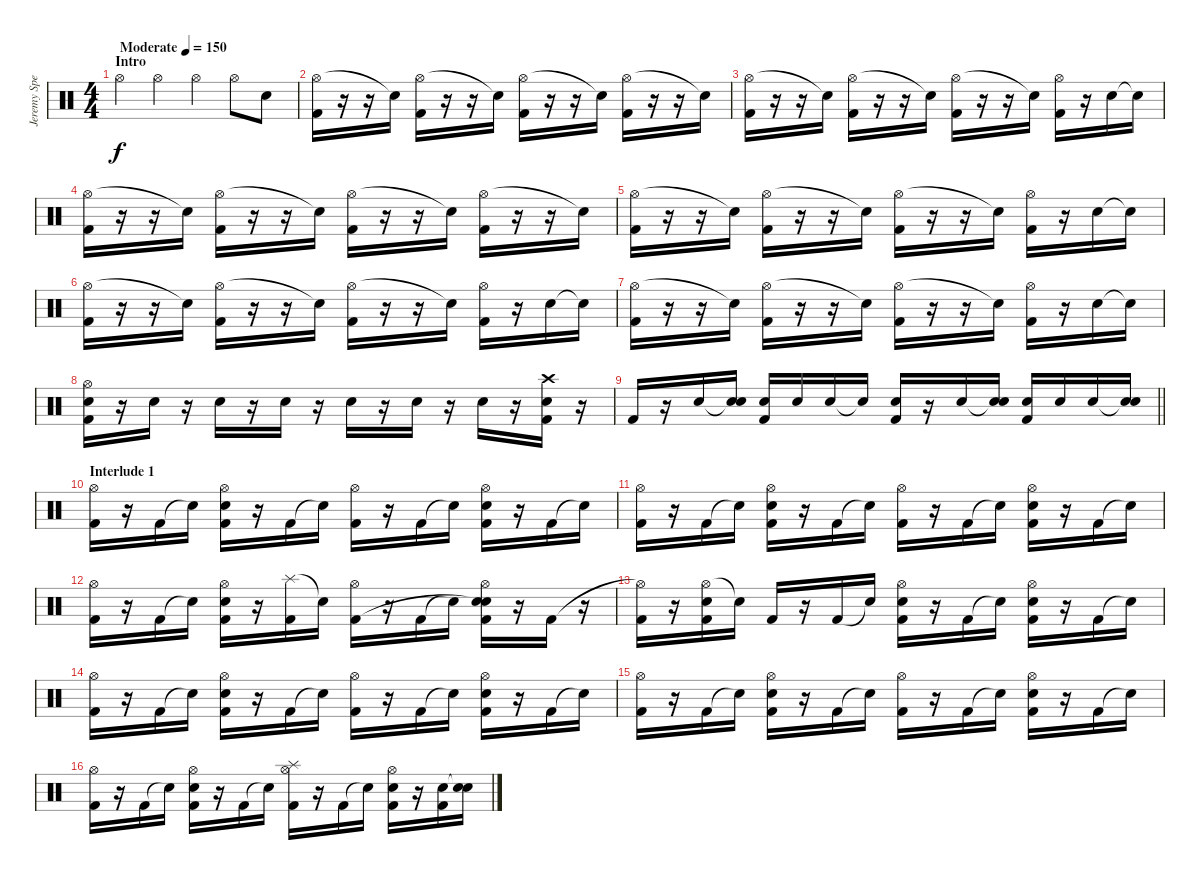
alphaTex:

\track ("Jeremy Spencer" "Jeremy Spe") {instrument percussion}
\staff {score}
\articulation defaults
\ts (4 4)
\section ("" "Intro")
\tempo (150 "Moderate")
\clef neutral
\ks c "Hi-Hat (open)".4{dy f} "Hi-Hat (open)".4 "Hi-Hat (open)".4 "Hi-Hat (open)".8 "Snare (hit) 2".8
|
("Hi-Hat (open)" "Kick (hit) 2").16 r.16 r.16 "Snare (hit)"{t}.16 ("Hi-Hat (open)" "Kick (hit) 2").16 r.16 r.16 "Snare (hit)"{t}.16 ("Hi-Hat (open)" "Kick (hit) 2").16 r.16 r.16 "Snare (hit)"{t}.16 ("Hi-Hat (open)" "Kick (hit) 2").16 r.16 r.16 "Snare (hit)"{t}.16 |
("Hi-Hat (open)" "Kick (hit) 2").16 r.16 r.16 "Snare (hit)"{t}.16 ("Hi-Hat (open)" "Kick (hit) 2").16 r.16 r.16 "Snare (hit)"{t}.16 ("Hi-Hat (open)" "Kick (hit) 2").16 r.16 r.16 "Snare (hit)"{t}.16 ("Hi-Hat (open)" "Kick (hit) 2").16 r.16 "Snare (hit) 2".16 "Snare (hit)"{t}.16 |
("Hi-Hat (open)" "Kick (hit) 2").16 r.16 r.16 "Snare (hit)"{t}.16 ("Hi-Hat (open)" "Kick (hit) 2").16 r.16 r.16 "Snare (hit)"{t}.16 ("Hi-Hat (open)" "Kick (hit) 2").16 r.16 r.16 "Snare (hit)"{t}.16 ("Hi-Hat (open)" "Kick (hit) 2").16 r.16 r.16 "Snare (hit)"{t}.16 |
("Hi-Hat (open)" "Kick (hit) 2").16 r.16 r.16 "Snare (hit)"{t}.16 ("Hi-Hat (open)" "Kick (hit) 2").16 r.16 r.16 "Snare (hit)"{t}.16 ("Hi-Hat (open)" "Kick (hit) 2").16 r.16 r.16 "Snare (hit)"{t}.16 ("Hi-Hat (open)" "Kick (hit) 2").16 r.16 "Snare (hit) 2".16 "Snare (hit)"{t}.16 |
("Hi-Hat (open)" "Kick (hit) 2").16 r.16 r.16 "Snare (hit)"{t}.16 ("Hi-Hat (open)" "Kick (hit) 2").16 r.16 r.16 "Snare (hit)"{t}.16 ("Hi-Hat (open)" "Kick (hit) 2").16 r.16 r.16 "Snare (hit)"{t}.16 ("Hi-Hat (open)" "Kick (hit) 2").16 r.16 "Snare (hit) 2".16 "Snare (hit)"{t}.16 |
("Hi-Hat (open)" "Kick (hit) 2").16 r.16 r.16 "Snare (hit)"{t}.16 ("Hi-Hat (open)" "Kick (hit) 2").16 r.16 r.16 "Snare (hit)"{t}.16 ("Hi-Hat (open)" "Kick (hit) 2").16 r.16 r.16 "Snare (hit)"{t}.16 ("Hi-Hat (open)" "Kick (hit) 2").16 r.16 "Snare (hit) 2".16 "Snare (hit)"{t}.16 |
("Hi-Hat (open)" "Snare (hit) 2" "Kick (hit) 2").16 r.16{volume 4} "Snare (hit) 2".16{volume 16} r.16 "Snare (hit) 2".16 r.16 "Snare (hit) 2".16 r.16 "Snare (hit) 2".16 r.16 "Snare (hit) 2".16 r.16 "Snare (hit) 2".16 r.16 ("Crash high (hit)" "Snare (hit) 2" "Kick (hit) 2").16 r.16 |
\barLineRight lightlight "Kick (hit) 2".16
r.16 "Snare (hit) 2".16 ("Snare (hit)"{t} "Snare (hit) 2").16 ("Snare (hit) 2" "Kick (hit) 2").16 "Snare (hit) 2".16 "Snare (hit) 2".16 "Snare (hit)"{t}.16 ("Snare (hit) 2" "Kick (hit) 2").16 r.16 "Snare (hit) 2".16 ("Snare (hit)"{t} "Snare (hit) 2").16 ("Snare (hit) 2" "Kick (hit) 2").16 "Snare (hit) 2".16 "Snare (hit) 2".16 ("Snare (hit)"{t} "Snare (hit) 2").16 |
\section ("" "Interlude 1")
("Hi-Hat (open)" "Kick (hit) 2").16 r.16 "Kick (hit) 2".16 "Snare (hit)"{t}.16 ("Hi-Hat (open)" "Snare (hit) 2" "Kick (hit) 2").16 r.16 "Kick (hit) 2".16 "Snare (hit)"{t}.16 ("Hi-Hat (open)" "Kick (hit) 2").16 r.16 "Kick (hit) 2".16 "Snare (hit)"{t}.16 ("Hi-Hat (open)" "Snare (hit) 2" "Kick (hit) 2").16 r.16 "Kick (hit) 2".16 "Snare (hit)"{t}.16 |
("Hi-Hat (open)" "Kick (hit) 2").16 r.16 "Kick (hit) 2".16 "Snare (hit)"{t}.16 ("Hi-Hat (open)" "Snare (hit) 2" "Kick (hit) 2").16 r.16 "Kick (hit) 2".16 "Snare (hit)"{t}.16 ("Hi-Hat (open)" "Kick (hit) 2").16 r.16 "Kick (hit) 2".16 "Snare (hit)"{t}.16 ("Hi-Hat (open)" "Snare (hit) 2" "Kick (hit) 2").16 r.16 "Kick (hit) 2".16 "Snare (hit)"{t}.16 |
("Hi-Hat (open)" "Kick (hit) 2").16 r.16 "Kick (hit) 2".16 "Snare (hit)"{t}.16 ("Hi-Hat (open)" "Snare (hit) 2" "Kick (hit) 2").16 r.16 ("Splash (hit)" "Kick (hit) 2").16 "Snare (hit)"{t}.16 ("Hi-Hat (open)" "Kick (hit) 2").16 r.16 "Kick (hit) 2".16 "Snare (hit)"{t}.16 ("Hi-Hat (open)" "Snare (hit)"{t} "Snare (hit) 2" "Kick (hit) 2").16 r.16 "Kick (hit) 2".16 r.16 |
("Hi-Hat (open)"{t} "Kick (hit) 2").16 r.16 ("Hi-Hat (open)" "Snare (hit) 2" "Kick (hit) 2").16 "Snare (hit)"{t}.16 "Kick (hit) 2".16 r.16 "Kick (hit) 2".16 "Snare (hit)"{t}.16 ("Hi-Hat (open)" "Snare (hit) 2" "Kick (hit) 2").16 r.16 "Kick (hit) 2".16 "Snare (hit)"{t}.16 ("Hi-Hat (open)" "Snare (hit) 2" "Kick (hit) 2").16 r.16 "Kick (hit) 2".16 "Snare (hit)"{t}.16 |
("Hi-Hat (open)" "Kick (hit) 2").16 r.16 "Kick (hit) 2".16 "Snare (hit)"{t}.16 ("Hi-Hat (open)" "Snare (hit) 2" "Kick (hit) 2").16 r.16 "Kick (hit) 2".16 "Snare (hit)"{t}.16 ("Hi-Hat (open)" "Kick (hit) 2").16 r.16 "Kick (hit) 2".16 "Snare (hit)"{t}.16 ("Hi-Hat (open)" "Snare (hit) 2" "Kick (hit) 2").16 r.16 "Kick (hit) 2".16 "Snare (hit)"{t}.16 |
("Hi-Hat (open)" "Kick (hit) 2").16 r.16 "Kick (hit) 2".16 "Snare (hit)"{t}.16 ("Hi-Hat (open)" "Snare (hit) 2" "Kick (hit) 2").16 r.16 "Kick (hit) 2".16 "Snare (hit)"{t}.16 ("Hi-Hat (open)" "Kick (hit) 2").16 r.16 "Kick (hit) 2".16 "Snare (hit)"{t}.16 ("Hi-Hat (open)" "Snare (hit) 2" "Kick (hit) 2").16 r.16 "Kick (hit) 2".16 "Snare (hit)"{t}.16 |
("Hi-Hat (open)" "Kick (hit) 2").16 r.16 "Kick (hit) 2".16 "Snare (hit)"{t}.16 ("Hi-Hat (open)" "Snare (hit) 2" "Kick (hit) 2").16 r.16 "Kick (hit) 2".16 "Snare (hit)"{t}.16 ("Hi-Hat (open)" "Splash (hit)" "Kick (hit) 2").16 r.16 "Kick (hit) 2".16 "Snare (hit)"{t}.16 ("Hi-Hat (open)" "Snare (hit) 2" "Kick (hit) 2").16 r.16 ("Snare (hit) 2" "Kick (hit) 2").16 ("Snare (hit)"{t} "Snare (hit) 2").16
